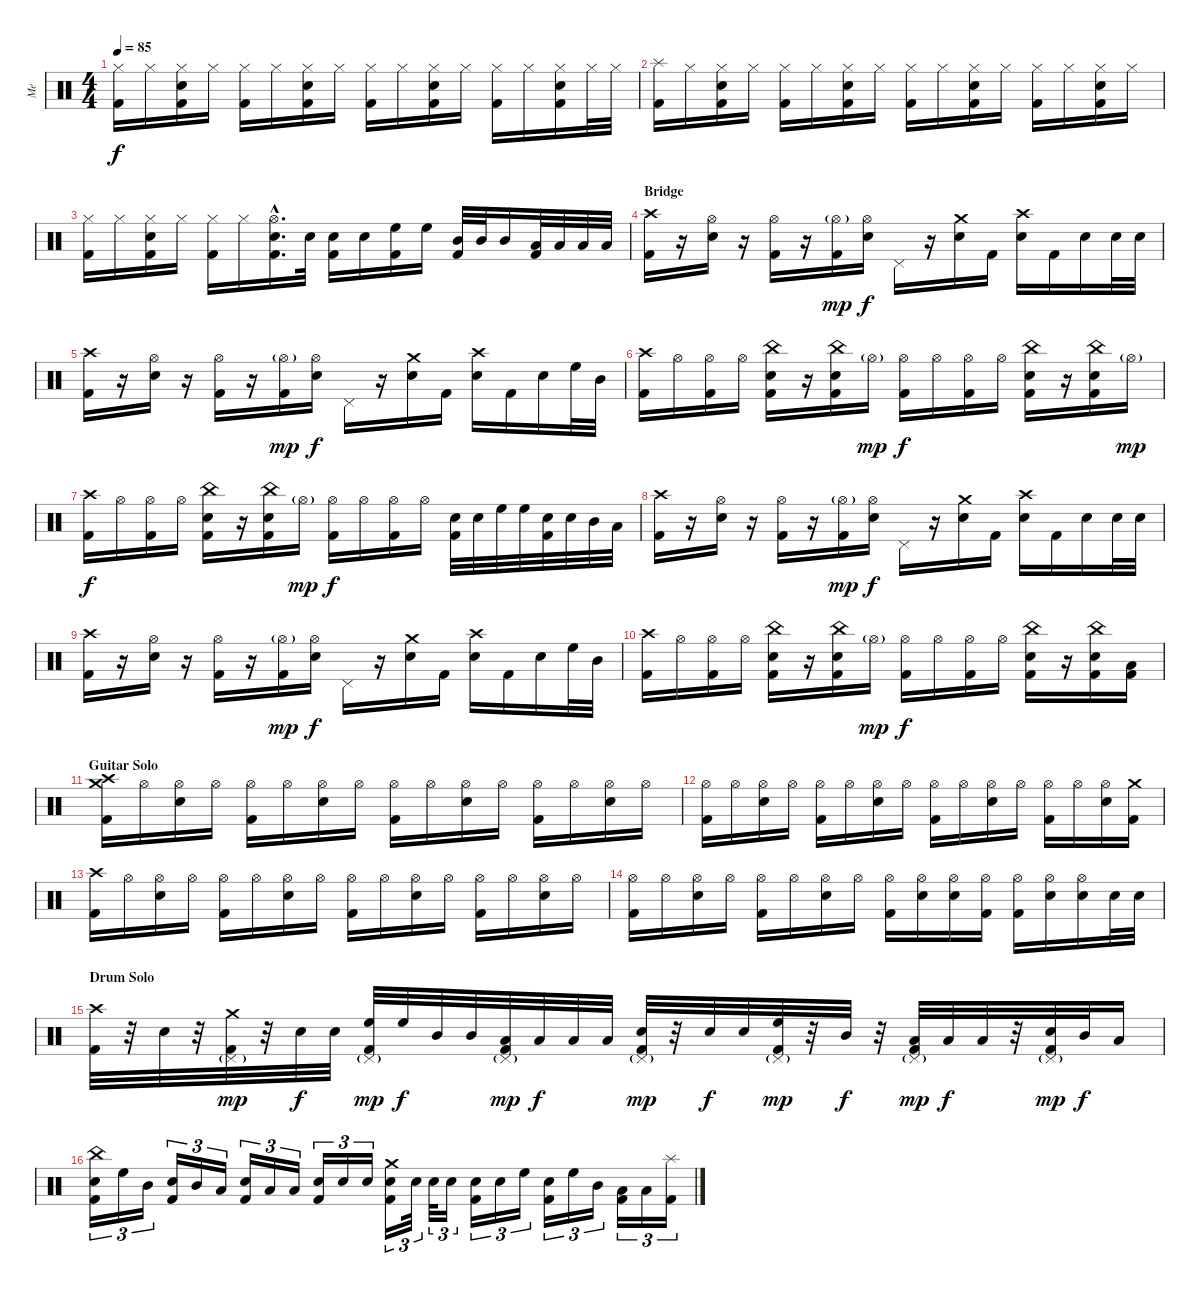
\track ("Me" "Me") {instrument percussion}
\staff {score}
\articulation defaults
\ts (4 4)
\tempo 85
\clef neutral
\ks c
("Hi-Hat (closed)" "Kick (hit) 2").16{dy f} "Hi-Hat (closed)".16 ("Hi-Hat (closed)" "Electric Snare (hit)" "Kick (hit) 2").16 "Hi-Hat (closed)".16 ("Hi-Hat (closed)" "Kick (hit) 2").16 "Hi-Hat (closed)".16 ("Hi-Hat (closed)" "Electric Snare (hit)" "Kick (hit) 2").16 "Hi-Hat (closed)".16 ("Hi-Hat (closed)" "Kick (hit) 2").16 "Hi-Hat (closed)".16 ("Hi-Hat (closed)" "Electric Snare (hit)" "Kick (hit) 2").16 "Hi-Hat (closed)".16 ("Hi-Hat (closed)" "Kick (hit) 2").16 "Hi-Hat (closed)".16 ("Hi-Hat (closed)" "Electric Snare (hit)" "Kick (hit) 2").16 "Hi-Hat (closed)".32 "Hi-Hat (closed)".32 |
("Splash (hit)" "Kick (hit) 2").16 "Hi-Hat (closed)".16 ("Hi-Hat (closed)" "Electric Snare (hit)" "Kick (hit) 2").16 "Hi-Hat (closed)".16 ("Hi-Hat (closed)" "Kick (hit) 2").16 "Hi-Hat (closed)".16 ("Hi-Hat (closed)" "Electric Snare (hit)" "Kick (hit) 2").16 "Hi-Hat (closed)".16 ("Hi-Hat (closed)" "Kick (hit) 2").16 "Hi-Hat (closed)".16 ("Hi-Hat (closed)" "Electric Snare (hit)" "Kick (hit) 2").16 "Hi-Hat (closed)".16 ("Hi-Hat (closed)" "Kick (hit) 2").16 "Hi-Hat (closed)".16 ("Hi-Hat (closed)" "Electric Snare (hit)" "Kick (hit) 2").16 "Hi-Hat (closed)".16 |
("Hi-Hat (closed)" "Kick (hit) 2").16 "Hi-Hat (closed)".16 ("Hi-Hat (closed)" "Electric Snare (hit)" "Kick (hit) 2").16 "Hi-Hat (closed)".16 ("Hi-Hat (closed)" "Kick (hit) 2").16 "Hi-Hat (closed)".16 ("Hi-Hat (open)"{hac} "Electric Snare (hit)"{hac} "Kick (hit) 2"{hac}).16{d} "Electric Snare (hit)".32 ("Electric Snare (hit)" "Kick (hit) 2").16 "Electric Snare (hit)".16 ("High Floor Tom (hit)" "Kick (hit) 2").16 "High Floor Tom (hit)".16 ("Mid Tom (hit)" "Kick (hit) 2").32 "Mid Tom (hit)".32 "Mid Tom (hit)".16 ("Low Tom (hit)" "Kick (hit) 2").32 "Low Tom (hit)".32 "Low Tom (hit)".32 "Low Tom (hit)".32 |
\section ("" "Bridge")
("Crash high (hit)" "Kick (hit) 2").16 r.16 ("Hi-Hat (open)" "Electric Snare (hit)").16 r.16 ("Hi-Hat (open)" "Kick (hit) 2").16 r.16 ("Hi-Hat (open)"{g} "Kick (hit) 2").16{dy mp} ("Hi-Hat (open)" "Electric Snare (hit)").16{dy f} "Pedal Hi-Hat (hit)".16 r.16 ("Crash medium (hit)" "Electric Snare (hit)").16 "Kick (hit) 2".16 ("Crash high (hit)" "Electric Snare (hit)").16 "Kick (hit) 2".16 "Electric Snare (hit)".16 "Electric Snare (hit)".32 "Electric Snare (hit)".32 |
("Crash high (hit)" "Kick (hit) 2").16 r.16 ("Hi-Hat (open)" "Electric Snare (hit)").16 r.16 ("Hi-Hat (open)" "Kick (hit) 2").16 r.16 ("Hi-Hat (open)"{g} "Kick (hit) 2").16{dy mp} ("Hi-Hat (open)" "Electric Snare (hit)").16{dy f} "Pedal Hi-Hat (hit)".16 r.16 ("Crash medium (hit)" "Electric Snare (hit)").16 "Kick (hit) 2".16 ("Crash high (hit)" "Electric Snare (hit)").16 "Kick (hit) 2".16 "Electric Snare (hit)".16 "High Floor Tom (hit)".32 "Mid Tom (hit)".32 |
("Crash high (hit)" "Kick (hit) 2").16 "Hi-Hat (open)".16 ("Hi-Hat (open)" "Kick (hit) 2").16 "Hi-Hat (open)".16 ("China (hit)" "Electric Snare (hit)" "Kick (hit) 2").16 r.16 ("China (hit)" "Electric Snare (hit)" "Kick (hit) 2").16 "Hi-Hat (open)"{g}.16{dy mp} ("Hi-Hat (open)" "Kick (hit) 2").16{dy f} "Hi-Hat (open)".16 ("Hi-Hat (open)" "Kick (hit) 2").16 "Hi-Hat (open)".16 ("China (hit)" "Electric Snare (hit)" "Kick (hit) 2").16 r.16 ("China (hit)" "Electric Snare (hit)" "Kick (hit) 2").16 "Hi-Hat (open)"{g}.16{dy mp} |
("Crash high (hit)" "Kick (hit) 2").16{dy f} "Hi-Hat (open)".16 ("Hi-Hat (open)" "Kick (hit) 2").16 "Hi-Hat (open)".16 ("China (hit)" "Electric Snare (hit)" "Kick (hit) 2").16 r.16 ("China (hit)" "Electric Snare (hit)" "Kick (hit) 2").16 "Hi-Hat (open)"{g}.16{dy mp} ("Hi-Hat (open)" "Kick (hit) 2").16{dy f} "Hi-Hat (open)".16 ("Hi-Hat (open)" "Kick (hit) 2").16 "Hi-Hat (open)".16 ("Electric Snare (hit)" "Kick (hit) 2").32 "Electric Snare (hit)".32 "High Floor Tom (hit)".32 "High Floor Tom (hit)".32 ("Electric Snare (hit)" "Kick (hit) 2").32 "Electric Snare (hit)".32 "Mid Tom (hit)".32 "Low Tom (hit)".32 |
("Crash high (hit)" "Kick (hit) 2").16 r.16 ("Hi-Hat (open)" "Electric Snare (hit)").16 r.16 ("Hi-Hat (open)" "Kick (hit) 2").16 r.16 ("Hi-Hat (open)"{g} "Kick (hit) 2").16{dy mp} ("Hi-Hat (open)" "Electric Snare (hit)").16{dy f} "Pedal Hi-Hat (hit)".16 r.16 ("Crash medium (hit)" "Electric Snare (hit)").16 "Kick (hit) 2".16 ("Crash high (hit)" "Electric Snare (hit)").16 "Kick (hit) 2".16 "Electric Snare (hit)".16 "Electric Snare (hit)".32 "Electric Snare (hit)".32 |
("Crash high (hit)" "Kick (hit) 2").16 r.16 ("Hi-Hat (open)" "Electric Snare (hit)").16 r.16 ("Hi-Hat (open)" "Kick (hit) 2").16 r.16 ("Hi-Hat (open)"{g} "Kick (hit) 2").16{dy mp} ("Hi-Hat (open)" "Electric Snare (hit)").16{dy f} "Pedal Hi-Hat (hit)".16 r.16 ("Crash medium (hit)" "Electric Snare (hit)").16 "Kick (hit) 2".16 ("Crash high (hit)" "Electric Snare (hit)").16 "Kick (hit) 2".16 "Electric Snare (hit)".16 "High Floor Tom (hit)".32 "Mid Tom (hit)".32 |
("Crash high (hit)" "Kick (hit) 2").16 "Hi-Hat (open)".16 ("Hi-Hat (open)" "Kick (hit) 2").16 "Hi-Hat (open)".16 ("China (hit)" "Electric Snare (hit)" "Kick (hit) 2").16 r.16 ("China (hit)" "Electric Snare (hit)" "Kick (hit) 2").16 "Hi-Hat (open)"{g}.16{dy mp} ("Hi-Hat (open)" "Kick (hit) 2").16{dy f} "Hi-Hat (open)".16 ("Hi-Hat (open)" "Kick (hit) 2").16 "Hi-Hat (open)".16 ("China (hit)" "Electric Snare (hit)" "Kick (hit) 2").16 r.16 ("China (hit)" "Electric Snare (hit)" "Kick (hit) 2").16 ("Low Floor Tom (hit)" "Kick (hit) 2").16 |
\section ("" "Guitar Solo")
("Crash high (hit)" "Crash medium (hit)" "Kick (hit) 2").16 "Hi-Hat (open)".16 ("Hi-Hat (open)" "Electric Snare (hit)").16 "Hi-Hat (open)".16 ("Hi-Hat (open)" "Kick (hit) 2").16 "Hi-Hat (open)".16 ("Hi-Hat (open)" "Electric Snare (hit)").16 "Hi-Hat (open)".16 ("Hi-Hat (open)" "Kick (hit) 2").16 "Hi-Hat (open)".16 ("Hi-Hat (open)" "Electric Snare (hit)").16 "Hi-Hat (open)".16 ("Hi-Hat (open)" "Kick (hit) 2").16 "Hi-Hat (open)".16 ("Hi-Hat (open)" "Electric Snare (hit)").16 "Hi-Hat (open)".16 |
("Hi-Hat (open)" "Kick (hit) 2").16 "Hi-Hat (open)".16 ("Hi-Hat (open)" "Electric Snare (hit)").16 "Hi-Hat (open)".16 ("Hi-Hat (open)" "Kick (hit) 2").16 "Hi-Hat (open)".16 ("Hi-Hat (open)" "Electric Snare (hit)").16 "Hi-Hat (open)".16 ("Hi-Hat (open)" "Kick (hit) 2").16 "Hi-Hat (open)".16 ("Hi-Hat (open)" "Electric Snare (hit)").16 "Hi-Hat (open)".16 ("Hi-Hat (open)" "Kick (hit) 2").16 "Hi-Hat (open)".16 ("Hi-Hat (open)" "Electric Snare (hit)").16 ("Crash medium (hit)" "Kick (hit) 2").16 |
("Crash high (hit)" "Kick (hit) 2").16 "Hi-Hat (open)".16 ("Hi-Hat (open)" "Electric Snare (hit)").16 "Hi-Hat (open)".16 ("Hi-Hat (open)" "Kick (hit) 2").16 "Hi-Hat (open)".16 ("Hi-Hat (open)" "Electric Snare (hit)").16 "Hi-Hat (open)".16 ("Hi-Hat (open)" "Kick (hit) 2").16 "Hi-Hat (open)".16 ("Hi-Hat (open)" "Electric Snare (hit)").16 "Hi-Hat (open)".16 ("Hi-Hat (open)" "Kick (hit) 2").16 "Hi-Hat (open)".16 ("Hi-Hat (open)" "Electric Snare (hit)").16 "Hi-Hat (open)".16 |
("Hi-Hat (open)" "Kick (hit) 2").16 "Hi-Hat (open)".16 ("Hi-Hat (open)" "Electric Snare (hit)").16 "Hi-Hat (open)".16 ("Hi-Hat (open)" "Kick (hit) 2").16 "Hi-Hat (open)".16 ("Hi-Hat (open)" "Electric Snare (hit)").16 "Hi-Hat (open)".16 ("Hi-Hat (open)" "Kick (hit) 2").16 ("Hi-Hat (open)" "Electric Snare (hit)").16 ("Hi-Hat (open)" "Electric Snare (hit)").16 ("Hi-Hat (open)" "Kick (hit) 2").16 ("Hi-Hat (open)" "Kick (hit) 2").16 ("Hi-Hat (open)" "Electric Snare (hit)").16 ("Hi-Hat (open)" "Electric Snare (hit)").16 "Electric Snare (hit)".32 "Electric Snare (hit)".32 |
\section ("" "Drum Solo")
("Crash high (hit)" "Kick (hit) 2").32 r.32 "Electric Snare (hit)".32 r.32 ("Crash medium (hit)" "Pedal Hi-Hat (hit)"{g} "Kick (hit) 2").32{dy mp} r.32 "Electric Snare (hit)".32{dy f} "Electric Snare (hit)".32 ("Pedal Hi-Hat (hit)"{g} "High Floor Tom (hit)" "Kick (hit) 2").32{dy mp} "High Floor Tom (hit)".32{dy f} "Mid Tom (hit)".32 "Mid Tom (hit)".32 ("Pedal Hi-Hat (hit)"{g} "Low Tom (hit)" "Kick (hit) 2").32{dy mp} "Low Tom (hit)".32{dy f} "Low Floor Tom (hit)".32 "Low Floor Tom (hit)".32 ("Pedal Hi-Hat (hit)"{g} "Electric Snare (hit)" "Kick (hit) 2").32{dy mp} r.32 "Electric Snare (hit)".32{dy f} "Electric Snare (hit)".32 ("Pedal Hi-Hat (hit)"{g} "High Floor Tom (hit)" "Kick (hit) 2").32{dy mp} r.32 "Mid Tom (hit)".32{dy f} r.32 ("Pedal Hi-Hat (hit)"{g} "Low Tom (hit)" "Kick (hit) 2").32{dy mp} "Low Tom (hit)".32{dy f} "Low Floor Tom (hit)".32 r.32 ("Pedal Hi-Hat (hit)"{g} "Electric Snare (hit)" "Kick (hit) 2").32{dy mp} "Mid Tom (hit)".32{dy f} "Low Tom (hit)".16 |
("China (hit)" "Electric Snare (hit)" "Kick (hit) 2").16{tu (3 2)} "High Floor Tom (hit)".16{tu (3 2)} "Mid Tom (hit)".16{tu (3 2)} ("Electric Snare (hit)" "Kick (hit) 2").16{tu (3 2)} "Mid Tom (hit)".16{tu (3 2)} "Low Tom (hit)".16{tu (3 2)} ("Electric Snare (hit)" "Kick (hit) 2").16{tu (3 2)} "Low Tom (hit)".16{tu (3 2)} "Low Floor Tom (hit)".16{tu (3 2)} ("Electric Snare (hit)" "Kick (hit) 2").16{tu (3 2)} "Electric Snare (hit)".16{tu (3 2)} "Electric Snare (hit)".16{tu (3 2)} ("Crash medium (hit)" "Electric Snare (hit)" "Kick (hit) 2").16{tu (3 2)} "Electric Snare (hit)".32{tu (3 2)} "Electric Snare (hit)".32{tu (3 2)} "Electric Snare (hit)".16{tu (3 2)} ("Electric Snare (hit)" "Kick (hit) 2").16{tu (3 2)} "Electric Snare (hit)".16{tu (3 2)} "High Floor Tom (hit)".16{tu (3 2)} ("Electric Snare (hit)" "Kick (hit) 2").16{tu (3 2)} "High Floor Tom (hit)".16{tu (3 2)} "Mid Tom (hit)".16{tu (3 2)} ("Low Tom (hit)" "Kick (hit) 2").16{tu (3 2)} "Low Floor Tom (hit)".16{tu (3 2)} ("Splash (hit)" "Kick (hit) 2").16{tu (3 2)}
